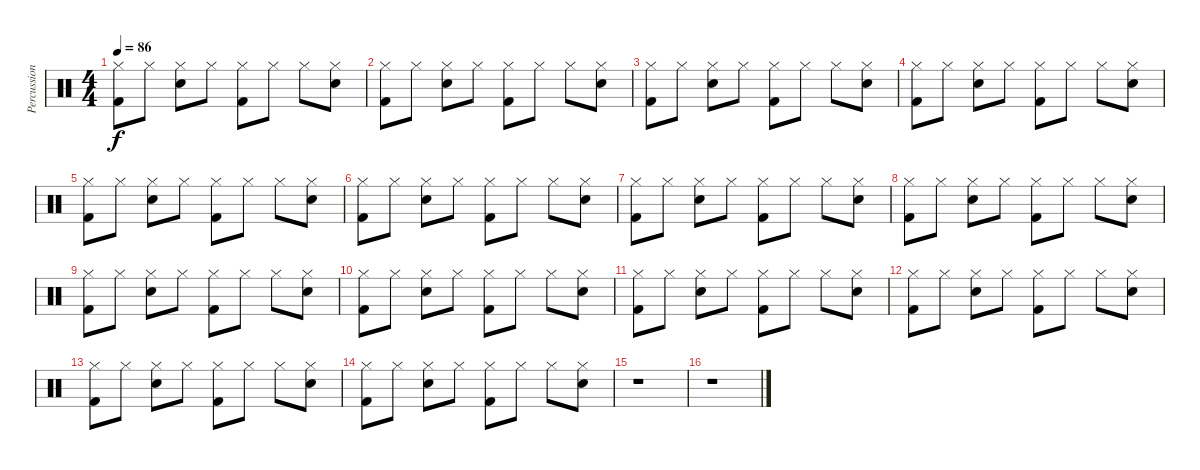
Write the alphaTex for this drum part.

\track ("Percussions" "Percussion") {instrument percussion}
\staff {score}
\articulation defaults
\ts (4 4)
\tempo 86
\clef neutral
\ks c
("Hi-Hat (closed)" "Kick (hit) 2").8{dy f} "Hi-Hat (closed)".8 ("Hi-Hat (closed)" "Snare (hit) 2").8 "Hi-Hat (closed)".8 ("Hi-Hat (closed)" "Kick (hit) 2").8 "Hi-Hat (closed)".8 "Hi-Hat (closed)".8 ("Hi-Hat (closed)" "Snare (hit) 2").8 |
("Hi-Hat (closed)" "Kick (hit) 2").8 "Hi-Hat (closed)".8 ("Hi-Hat (closed)" "Snare (hit) 2").8 "Hi-Hat (closed)".8 ("Hi-Hat (closed)" "Kick (hit) 2").8 "Hi-Hat (closed)".8 "Hi-Hat (closed)".8 ("Hi-Hat (closed)" "Snare (hit) 2").8 |
("Hi-Hat (closed)" "Kick (hit) 2").8 "Hi-Hat (closed)".8 ("Hi-Hat (closed)" "Snare (hit) 2").8 "Hi-Hat (closed)".8 ("Hi-Hat (closed)" "Kick (hit) 2").8 "Hi-Hat (closed)".8 "Hi-Hat (closed)".8 ("Hi-Hat (closed)" "Snare (hit) 2").8 |
("Hi-Hat (closed)" "Kick (hit) 2").8 "Hi-Hat (closed)".8 ("Hi-Hat (closed)" "Snare (hit) 2").8 "Hi-Hat (closed)".8 ("Hi-Hat (closed)" "Kick (hit) 2").8 "Hi-Hat (closed)".8 "Hi-Hat (closed)".8 ("Hi-Hat (closed)" "Snare (hit) 2").8 |
("Hi-Hat (closed)" "Kick (hit) 2").8 "Hi-Hat (closed)".8 ("Hi-Hat (closed)" "Snare (hit) 2").8 "Hi-Hat (closed)".8 ("Hi-Hat (closed)" "Kick (hit) 2").8 "Hi-Hat (closed)".8 "Hi-Hat (closed)".8 ("Hi-Hat (closed)" "Snare (hit) 2").8 |
("Hi-Hat (closed)" "Kick (hit) 2").8 "Hi-Hat (closed)".8 ("Hi-Hat (closed)" "Snare (hit) 2").8 "Hi-Hat (closed)".8 ("Hi-Hat (closed)" "Kick (hit) 2").8 "Hi-Hat (closed)".8 "Hi-Hat (closed)".8 ("Hi-Hat (closed)" "Snare (hit) 2").8 |
("Hi-Hat (closed)" "Kick (hit) 2").8 "Hi-Hat (closed)".8 ("Hi-Hat (closed)" "Snare (hit) 2").8 "Hi-Hat (closed)".8 ("Hi-Hat (closed)" "Kick (hit) 2").8 "Hi-Hat (closed)".8 "Hi-Hat (closed)".8 ("Hi-Hat (closed)" "Snare (hit) 2").8 |
("Hi-Hat (closed)" "Kick (hit) 2").8 "Hi-Hat (closed)".8 ("Hi-Hat (closed)" "Snare (hit) 2").8 "Hi-Hat (closed)".8 ("Hi-Hat (closed)" "Kick (hit) 2").8 "Hi-Hat (closed)".8 "Hi-Hat (closed)".8 ("Hi-Hat (closed)" "Snare (hit) 2").8 |
("Hi-Hat (closed)" "Kick (hit) 2").8 "Hi-Hat (closed)".8 ("Hi-Hat (closed)" "Snare (hit) 2").8 "Hi-Hat (closed)".8 ("Hi-Hat (closed)" "Kick (hit) 2").8 "Hi-Hat (closed)".8 "Hi-Hat (closed)".8 ("Hi-Hat (closed)" "Snare (hit) 2").8 |
("Hi-Hat (closed)" "Kick (hit) 2").8 "Hi-Hat (closed)".8 ("Hi-Hat (closed)" "Snare (hit) 2").8 "Hi-Hat (closed)".8 ("Hi-Hat (closed)" "Kick (hit) 2").8 "Hi-Hat (closed)".8 "Hi-Hat (closed)".8 ("Hi-Hat (closed)" "Snare (hit) 2").8 |
("Hi-Hat (closed)" "Kick (hit) 2").8 "Hi-Hat (closed)".8 ("Hi-Hat (closed)" "Snare (hit) 2").8 "Hi-Hat (closed)".8 ("Hi-Hat (closed)" "Kick (hit) 2").8 "Hi-Hat (closed)".8 "Hi-Hat (closed)".8 ("Hi-Hat (closed)" "Snare (hit) 2").8 |
("Hi-Hat (closed)" "Kick (hit) 2").8 "Hi-Hat (closed)".8 ("Hi-Hat (closed)" "Snare (hit) 2").8 "Hi-Hat (closed)".8 ("Hi-Hat (closed)" "Kick (hit) 2").8 "Hi-Hat (closed)".8 "Hi-Hat (closed)".8 ("Hi-Hat (closed)" "Snare (hit) 2").8 |
("Hi-Hat (closed)" "Kick (hit) 2").8 "Hi-Hat (closed)".8 ("Hi-Hat (closed)" "Snare (hit) 2").8 "Hi-Hat (closed)".8 ("Hi-Hat (closed)" "Kick (hit) 2").8 "Hi-Hat (closed)".8 "Hi-Hat (closed)".8 ("Hi-Hat (closed)" "Snare (hit) 2").8 |
("Hi-Hat (closed)" "Kick (hit) 2").8 "Hi-Hat (closed)".8 ("Hi-Hat (closed)" "Snare (hit) 2").8 "Hi-Hat (closed)".8 ("Hi-Hat (closed)" "Kick (hit) 2").8 "Hi-Hat (closed)".8 "Hi-Hat (closed)".8 ("Hi-Hat (closed)" "Snare (hit) 2").8 |
r.1 |
r.1
